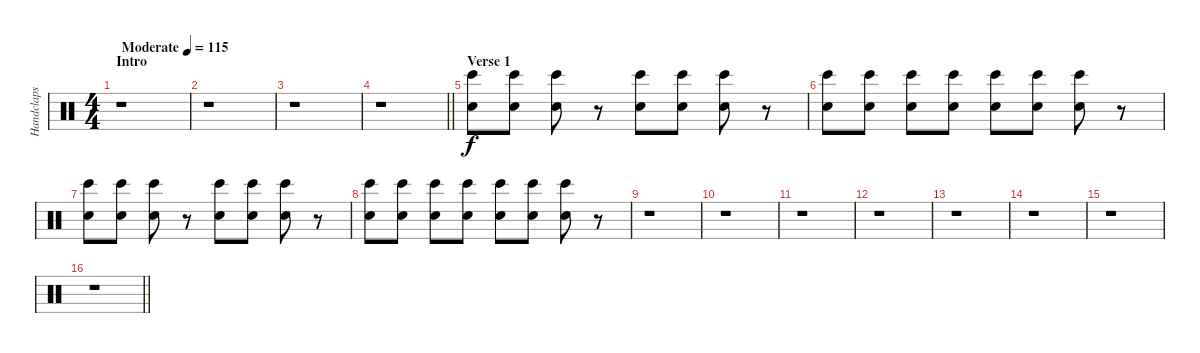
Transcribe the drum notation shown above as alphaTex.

\track ("Handclaps" "Handclaps") {instrument percussion}
\staff {score}
\articulation defaults
\ts (4 4)
\section ("" "Intro")
\tempo (115 "Moderate")
\clef neutral
\ks c
r.1{dy f volume 12} |
r.1 |
r.1 |
\barLineRight lightlight
r.1 |
\section ("" "Verse 1")
("Bongo High (hit)" "Hand Clap (hit)").8 ("Bongo High (hit)" "Hand Clap (hit)").8 ("Bongo High (hit)" "Hand Clap (hit)").8 r.8 ("Bongo High (hit)" "Hand Clap (hit)").8 ("Bongo High (hit)" "Hand Clap (hit)").8 ("Bongo High (hit)" "Hand Clap (hit)").8 r.8 |
("Bongo High (hit)" "Hand Clap (hit)").8 ("Bongo High (hit)" "Hand Clap (hit)").8 ("Bongo High (hit)" "Hand Clap (hit)").8 ("Bongo High (hit)" "Hand Clap (hit)").8 ("Bongo High (hit)" "Hand Clap (hit)").8 ("Bongo High (hit)" "Hand Clap (hit)").8 ("Bongo High (hit)" "Hand Clap (hit)").8 r.8 |
("Bongo High (hit)" "Hand Clap (hit)").8 ("Bongo High (hit)" "Hand Clap (hit)").8 ("Bongo High (hit)" "Hand Clap (hit)").8 r.8 ("Bongo High (hit)" "Hand Clap (hit)").8 ("Bongo High (hit)" "Hand Clap (hit)").8 ("Bongo High (hit)" "Hand Clap (hit)").8 r.8 |
("Bongo High (hit)" "Hand Clap (hit)").8 ("Bongo High (hit)" "Hand Clap (hit)").8 ("Bongo High (hit)" "Hand Clap (hit)").8 ("Bongo High (hit)" "Hand Clap (hit)").8 ("Bongo High (hit)" "Hand Clap (hit)").8 ("Bongo High (hit)" "Hand Clap (hit)").8 ("Bongo High (hit)" "Hand Clap (hit)").8 r.8 |
r.1 |
r.1 |
r.1 |
r.1 |
r.1 |
r.1 |
r.1 |
\barLineRight lightlight
r.1
